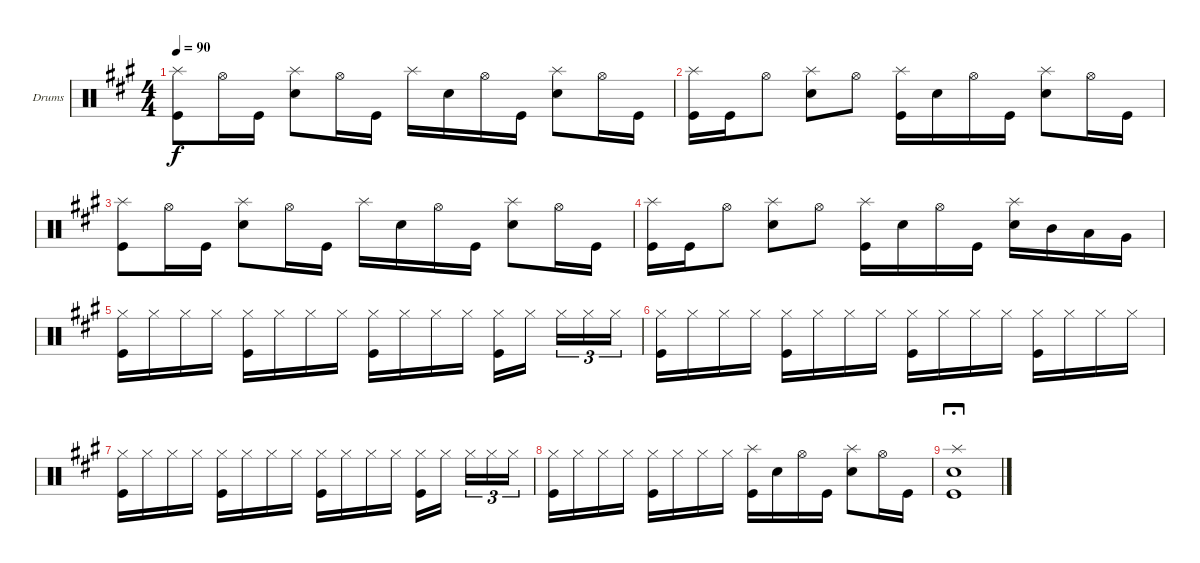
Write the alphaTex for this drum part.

\bracketExtendMode groupsimilarinstruments
\firstSystemTrackNameOrientation horizontal
\otherSystemsTrackNameOrientation horizontal
\track ("Drumkit" "Drums") {instrument percussion}
\staff {score}
\articulation defaults
\ts (4 4)
\tempo 90
\clef neutral
\ks f#minor
("Kick (hit)" "Splash (hit)").8{dy f} "Hi-Hat (open)".16 "Kick (hit)".16 ("Snare (hit) 2" "Splash (hit)").8 "Hi-Hat (open)".16 "Kick (hit)".16 "Splash (hit)".16 "Snare (hit) 2".16 "Hi-Hat (open)".16 "Kick (hit)".16 ("Snare (hit) 2" "Splash (hit)").8 "Hi-Hat (open)".16 "Kick (hit)".16 |
("Kick (hit)" "Splash (hit)").16 "Kick (hit)".16 "Hi-Hat (open)".8 ("Snare (hit) 2" "Splash (hit)").8 "Hi-Hat (open)".8 ("Kick (hit)" "Splash (hit)").16 "Snare (hit) 2".16 "Hi-Hat (open)".16 "Kick (hit)".16 ("Snare (hit) 2" "Splash (hit)").8 "Hi-Hat (open)".16 "Kick (hit)".16 |
("Kick (hit)" "Splash (hit)").8 "Hi-Hat (open)".16 "Kick (hit)".16 ("Snare (hit) 2" "Splash (hit)").8 "Hi-Hat (open)".16 "Kick (hit)".16 "Splash (hit)".16 "Snare (hit) 2".16 "Hi-Hat (open)".16 "Kick (hit)".16 ("Snare (hit) 2" "Splash (hit)").8 "Hi-Hat (open)".16 "Kick (hit)".16 |
("Kick (hit)" "Splash (hit)").16 "Kick (hit)".16 "Hi-Hat (open)".8 ("Snare (hit) 2" "Splash (hit)").8 "Hi-Hat (open)".8 ("Kick (hit)" "Splash (hit)").16 "Snare (hit) 2".16 "Hi-Hat (open)".16 "Kick (hit)".16 ("Snare (hit) 2" "Splash (hit)").16 "Mid Tom (hit)".16 "Low Tom (hit)".16 "Very Low Tom (hit)".16 |
("Hi-Hat (closed)" "Kick (hit)").16 "Hi-Hat (closed)".16 "Hi-Hat (closed)".16 "Hi-Hat (closed)".16 ("Kick (hit)" "Hi-Hat (closed)").16 "Hi-Hat (closed)".16 "Hi-Hat (closed)".16 "Hi-Hat (closed)".16 ("Hi-Hat (closed)" "Kick (hit)").16 "Hi-Hat (closed)".16 "Hi-Hat (closed)".16 "Hi-Hat (closed)".16 ("Hi-Hat (closed)" "Kick (hit)").16 "Hi-Hat (closed)".16 "Hi-Hat (closed)".16{tu (3 2)} "Hi-Hat (closed)".16{tu (3 2)} "Hi-Hat (closed)".16{tu (3 2)} |
("Hi-Hat (closed)" "Kick (hit)").16 "Hi-Hat (closed)".16 "Hi-Hat (closed)".16 "Hi-Hat (closed)".16 ("Kick (hit)" "Hi-Hat (closed)").16 "Hi-Hat (closed)".16 "Hi-Hat (closed)".16 "Hi-Hat (closed)".16 ("Hi-Hat (closed)" "Kick (hit)").16 "Hi-Hat (closed)".16 "Hi-Hat (closed)".16 "Hi-Hat (closed)".16 ("Hi-Hat (closed)" "Kick (hit)").16 "Hi-Hat (closed)".16 "Hi-Hat (closed)".16 "Hi-Hat (closed)".16 |
("Hi-Hat (closed)" "Kick (hit)").16 "Hi-Hat (closed)".16 "Hi-Hat (closed)".16 "Hi-Hat (closed)".16 ("Kick (hit)" "Hi-Hat (closed)").16 "Hi-Hat (closed)".16 "Hi-Hat (closed)".16 "Hi-Hat (closed)".16 ("Hi-Hat (closed)" "Kick (hit)").16 "Hi-Hat (closed)".16 "Hi-Hat (closed)".16 "Hi-Hat (closed)".16 ("Hi-Hat (closed)" "Kick (hit)").16 "Hi-Hat (closed)".16 "Hi-Hat (closed)".16{tu (3 2)} "Hi-Hat (closed)".16{tu (3 2)} "Hi-Hat (closed)".16{tu (3 2)} |
("Hi-Hat (closed)" "Kick (hit)").16 "Hi-Hat (closed)".16 "Hi-Hat (closed)".16 "Hi-Hat (closed)".16 ("Kick (hit)" "Hi-Hat (closed)").16 "Hi-Hat (closed)".16 "Hi-Hat (closed)".16 "Hi-Hat (closed)".16 ("Kick (hit)" "Splash (hit)").16 "Snare (hit) 2".16 "Hi-Hat (open)".16 "Kick (hit)".16 ("Snare (hit) 2" "Splash (hit)").8 "Hi-Hat (open)".16 "Kick (hit)".16 |
("Splash (hit)" "Snare (hit) 2" "Kick (hit)").1{fermata (long 1)}
